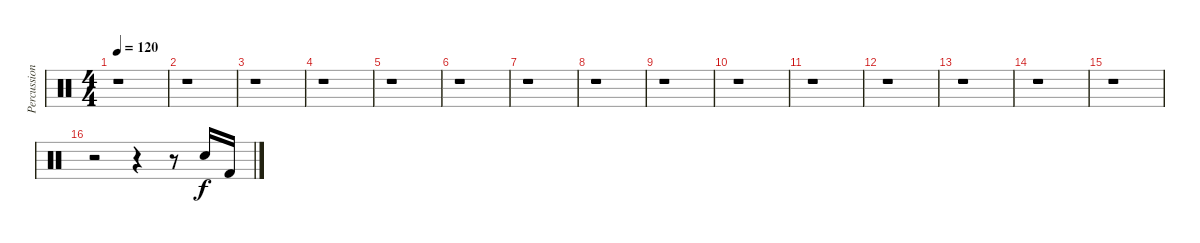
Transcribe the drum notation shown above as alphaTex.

\track ("Percussion" "Percussion") {instrument percussion}
\staff {score}
\articulation defaults
\ts (4 4)
\tempo 120
\clef neutral
\ks c
r.1{dy f} |
r.1 |
r.1 |
r.1 |
r.1 |
r.1 |
r.1 |
r.1 |
r.1 |
r.1 |
r.1 |
r.1 |
r.1 |
r.1 |
r.1 |
r.2 r.4 r.8 "Snare (hit) 2".16 "Kick (hit) 2".16
